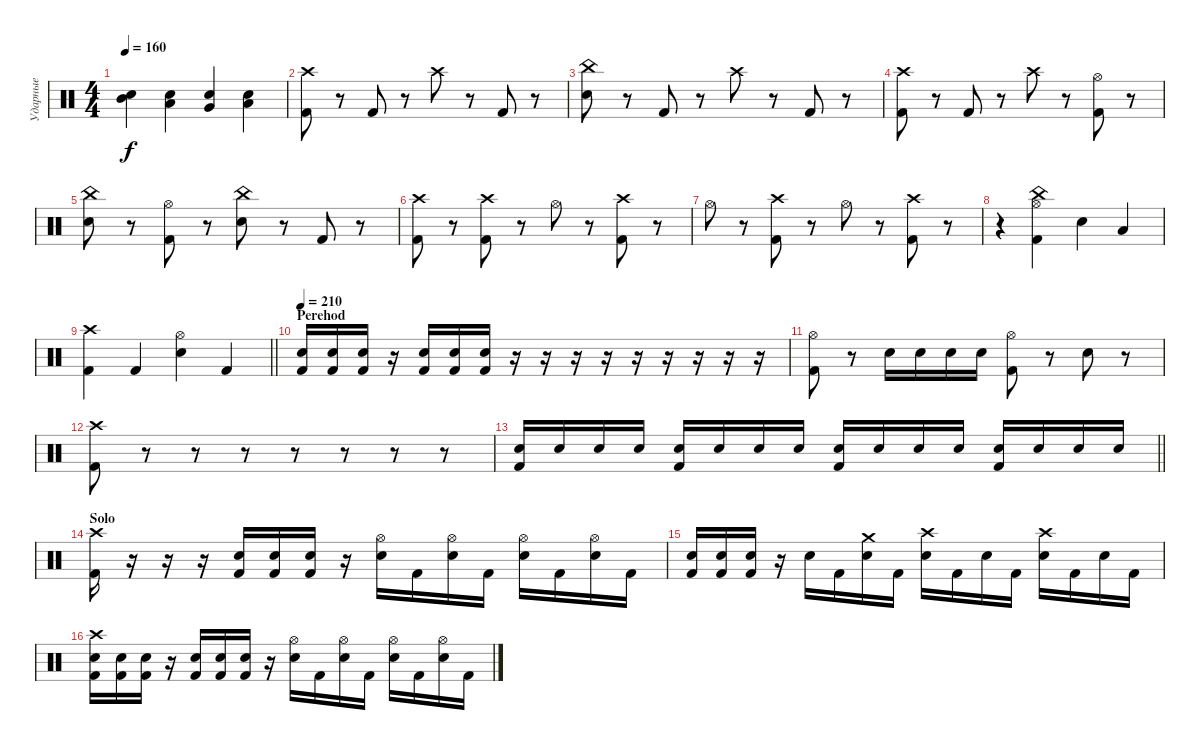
\track ("Ударные" "Ударные") {instrument percussion}
\staff {score}
\articulation defaults
\ts (4 4)
\tempo 160
\clef neutral
\ks c
("Mid Tom (hit)" "Electric Snare (hit)").4{dy f} ("Low Tom (hit)" "Electric Snare (hit)").4 ("Very Low Tom (hit)" "Electric Snare (hit)").4 ("Low Floor Tom (hit)" "Electric Snare (hit)").4 |
("Kick (hit) 2" "Crash high (hit)").8 r.8 "Kick (hit) 2".8 r.8 "Crash high (hit)".8 r.8 "Kick (hit) 2".8 r.8 |
("Electric Snare (hit)" "China (hit)").8 r.8 "Kick (hit) 2".8 r.8 "Crash high (hit)".8 r.8 "Kick (hit) 2".8 r.8 |
("Kick (hit) 2" "Crash high (hit)").8 r.8 "Kick (hit) 2".8 r.8 "Crash high (hit)".8 r.8 ("Kick (hit) 2" "Hi-Hat (open)").8 r.8 |
("Electric Snare (hit)" "China (hit)").8 r.8 ("Kick (hit) 2" "Hi-Hat (open)").8 r.8 ("Electric Snare (hit)" "China (hit)").8 r.8 "Kick (hit) 2".8 r.8 |
("Kick (hit) 2" "Crash high (hit)").8 r.8 ("Kick (hit) 2" "Crash high (hit)").8 r.8 "Hi-Hat (open)".8 r.8 ("Kick (hit) 2" "Crash high (hit)").8 r.8 |
"Hi-Hat (open)".8 r.8 ("Kick (hit) 2" "Crash high (hit)").8 r.8 "Hi-Hat (open)".8 r.8 ("Kick (hit) 2" "Crash high (hit)").8 r.8 |
r.4 ("Hi-Hat (open)" "Kick (hit) 2" "China (hit)").4 "Electric Snare (hit)".4 "Low Floor Tom (hit)".4 |
\barLineRight lightlight
("Kick (hit) 2" "Crash high (hit)").4 "Kick (hit) 2".4 ("Electric Snare (hit)" "Hi-Hat (open)").4 "Kick (hit) 2".4 |
\section ("" "Perehod")
\tempo 210
("Electric Snare (hit)" "Kick (hit) 2").16 ("Electric Snare (hit)" "Kick (hit) 2").16 ("Electric Snare (hit)" "Kick (hit) 2").16 r.16 ("Electric Snare (hit)" "Kick (hit) 2").16 ("Electric Snare (hit)" "Kick (hit) 2").16 ("Electric Snare (hit)" "Kick (hit) 2").16 r.16 r.16 r.16 r.16 r.16 r.16 r.16 r.16 r.16 |
("Hi-Hat (open)" "Kick (hit) 2").8 r.8 "Electric Snare (hit)".16 "Electric Snare (hit)".16 "Electric Snare (hit)".16 "Electric Snare (hit)".16 ("Hi-Hat (open)" "Kick (hit) 2").8 r.8 "Electric Snare (hit)".8 r.8 |
("Kick (hit) 2" "Crash high (hit)").8 r.8 r.8{volume 5} r.8 r.8 r.8 r.8 r.8 |
\barLineRight lightlight
("Kick (hit) 2" "Electric Snare (hit)").16{volume 16} "Electric Snare (hit)".16 "Electric Snare (hit)".16 "Electric Snare (hit)".16 ("Kick (hit) 2" "Electric Snare (hit)").16 "Electric Snare (hit)".16 "Electric Snare (hit)".16 "Electric Snare (hit)".16 ("Kick (hit) 2" "Electric Snare (hit)").16 "Electric Snare (hit)".16 "Electric Snare (hit)".16 "Electric Snare (hit)".16 ("Kick (hit) 2" "Electric Snare (hit)").16 "Electric Snare (hit)".16 "Electric Snare (hit)".16 "Electric Snare (hit)".16 |
\section ("" "Solo")
("Kick (hit) 2" "Crash high (hit)").16 r.16 r.16 r.16 ("Electric Snare (hit)" "Kick (hit) 2").16 ("Electric Snare (hit)" "Kick (hit) 2").16 ("Electric Snare (hit)" "Kick (hit) 2").16 r.16 ("Electric Snare (hit)" "Hi-Hat (open)").16 "Kick (hit) 2".16 ("Electric Snare (hit)" "Hi-Hat (open)").16 "Kick (hit) 2".16 ("Electric Snare (hit)" "Hi-Hat (open)").16 "Kick (hit) 2".16 ("Electric Snare (hit)" "Hi-Hat (open)").16 "Kick (hit) 2".16 |
("Electric Snare (hit)" "Kick (hit) 2").16 ("Electric Snare (hit)" "Kick (hit) 2").16 ("Electric Snare (hit)" "Kick (hit) 2").16 r.16 "Electric Snare (hit)".16 "Kick (hit) 2".16 ("Electric Snare (hit)" "Crash medium (hit)").16 "Kick (hit) 2".16 ("Electric Snare (hit)" "Crash high (hit)").16 "Kick (hit) 2".16 "Electric Snare (hit)".16 "Kick (hit) 2".16 ("Electric Snare (hit)" "Crash high (hit)").16 "Kick (hit) 2".16 "Electric Snare (hit)".16 "Kick (hit) 2".16 |
("Electric Snare (hit)" "Kick (hit) 2" "Crash high (hit)").16 ("Electric Snare (hit)" "Kick (hit) 2").16 ("Electric Snare (hit)" "Kick (hit) 2").16 r.16 ("Electric Snare (hit)" "Kick (hit) 2").16 ("Electric Snare (hit)" "Kick (hit) 2").16 ("Electric Snare (hit)" "Kick (hit) 2").16 r.16 ("Electric Snare (hit)" "Hi-Hat (open)").16 "Kick (hit) 2".16 ("Electric Snare (hit)" "Hi-Hat (open)").16 "Kick (hit) 2".16 ("Electric Snare (hit)" "Hi-Hat (open)").16 "Kick (hit) 2".16 ("Electric Snare (hit)" "Hi-Hat (open)").16 "Kick (hit) 2".16
